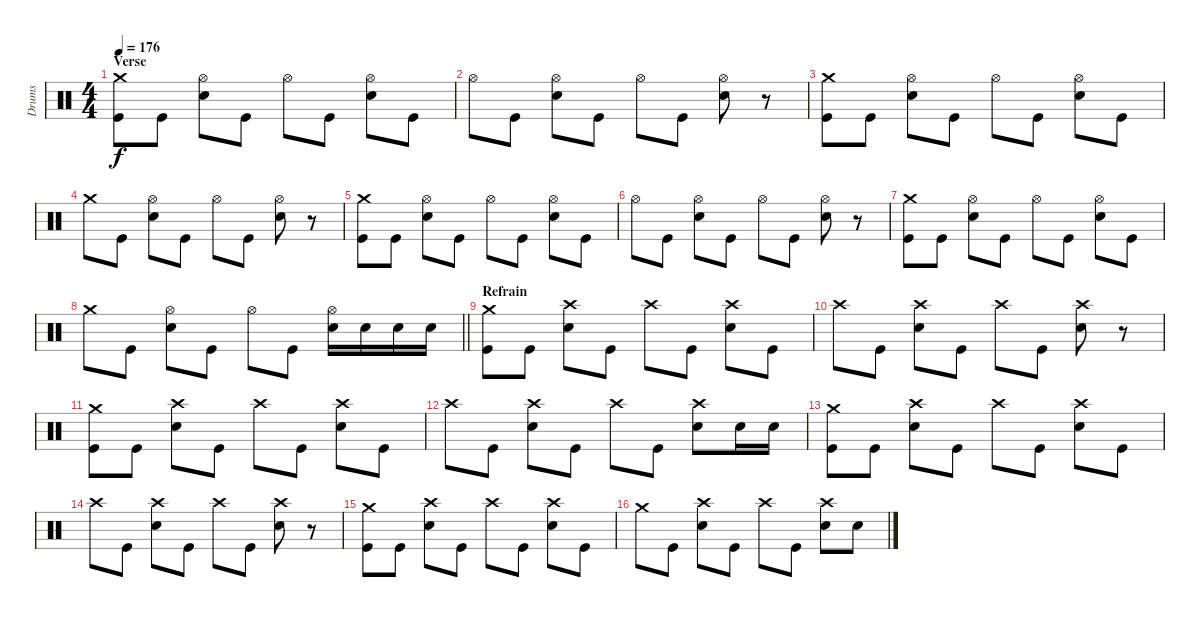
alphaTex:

\track ("Drums" "Drums") {instrument percussion}
\staff {score}
\articulation defaults
\ts (4 4)
\section ("" "Verse")
\tempo 176
\clef neutral
\ks c
("Crash medium (hit)" "Kick (hit)").8{dy f} "Kick (hit)".8 ("Hi-Hat (open)" "Electric Snare (hit)").8 "Kick (hit)".8 "Hi-Hat (open)".8 "Kick (hit)".8 ("Hi-Hat (open)" "Electric Snare (hit)").8 "Kick (hit)".8 |
"Hi-Hat (open)".8 "Kick (hit)".8 ("Hi-Hat (open)" "Electric Snare (hit)").8 "Kick (hit)".8 "Hi-Hat (open)".8 "Kick (hit)".8 ("Hi-Hat (open)" "Electric Snare (hit)").8 r.8 |
("Crash medium (hit)" "Kick (hit)").8 "Kick (hit)".8 ("Hi-Hat (open)" "Electric Snare (hit)").8 "Kick (hit)".8 "Hi-Hat (open)".8 "Kick (hit)".8 ("Hi-Hat (open)" "Electric Snare (hit)").8 "Kick (hit)".8 |
"Crash medium (hit)".8 "Kick (hit)".8 ("Hi-Hat (open)" "Electric Snare (hit)").8 "Kick (hit)".8 "Hi-Hat (open)".8 "Kick (hit)".8 ("Hi-Hat (open)" "Electric Snare (hit)").8 r.8 |
("Crash medium (hit)" "Kick (hit)").8 "Kick (hit)".8 ("Hi-Hat (open)" "Electric Snare (hit)").8 "Kick (hit)".8 "Hi-Hat (open)".8 "Kick (hit)".8 ("Hi-Hat (open)" "Electric Snare (hit)").8 "Kick (hit)".8 |
"Hi-Hat (open)".8 "Kick (hit)".8 ("Hi-Hat (open)" "Electric Snare (hit)").8 "Kick (hit)".8 "Hi-Hat (open)".8 "Kick (hit)".8 ("Hi-Hat (open)" "Electric Snare (hit)").8 r.8 |
("Crash medium (hit)" "Kick (hit)").8 "Kick (hit)".8 ("Hi-Hat (open)" "Electric Snare (hit)").8 "Kick (hit)".8 "Hi-Hat (open)".8 "Kick (hit)".8 ("Hi-Hat (open)" "Electric Snare (hit)").8 "Kick (hit)".8 |
\barLineRight lightlight "Crash medium (hit)".8 "Kick (hit)".8
("Hi-Hat (open)" "Electric Snare (hit)").8 "Kick (hit)".8 "Hi-Hat (open)".8 "Kick (hit)".8 ("Hi-Hat (open)" "Electric Snare (hit)").16 "Electric Snare (hit)".16 "Electric Snare (hit)".16 "Electric Snare (hit)".16 |
\section ("" "Refrain")
("Crash medium (hit)" "Kick (hit)").8 "Kick (hit)".8 ("Crash high (hit)" "Electric Snare (hit)").8 "Kick (hit)".8 "Crash high (hit)".8 "Kick (hit)".8 ("Crash high (hit)" "Electric Snare (hit)").8 "Kick (hit)".8 |
"Crash high (hit)".8 "Kick (hit)".8 ("Crash high (hit)" "Electric Snare (hit)").8 "Kick (hit)".8 "Crash high (hit)".8 "Kick (hit)".8 ("Crash high (hit)" "Electric Snare (hit)").8 r.8 |
("Crash medium (hit)" "Kick (hit)").8 "Kick (hit)".8 ("Crash high (hit)" "Electric Snare (hit)").8 "Kick (hit)".8 "Crash high (hit)".8 "Kick (hit)".8 ("Crash high (hit)" "Electric Snare (hit)").8 "Kick (hit)".8 |
"Crash high (hit)".8 "Kick (hit)".8 ("Crash high (hit)" "Electric Snare (hit)").8 "Kick (hit)".8 "Crash high (hit)".8 "Kick (hit)".8 ("Crash high (hit)" "Electric Snare (hit)").8 "Electric Snare (hit)".16 "Electric Snare (hit)".16 |
("Crash medium (hit)" "Kick (hit)").8 "Kick (hit)".8 ("Crash high (hit)" "Electric Snare (hit)").8 "Kick (hit)".8 "Crash high (hit)".8 "Kick (hit)".8 ("Crash high (hit)" "Electric Snare (hit)").8 "Kick (hit)".8 |
"Crash high (hit)".8 "Kick (hit)".8 ("Crash high (hit)" "Electric Snare (hit)").8 "Kick (hit)".8 "Crash high (hit)".8 "Kick (hit)".8 ("Crash high (hit)" "Electric Snare (hit)").8 r.8 |
("Crash medium (hit)" "Kick (hit)").8 "Kick (hit)".8 ("Crash high (hit)" "Electric Snare (hit)").8 "Kick (hit)".8 "Crash high (hit)".8 "Kick (hit)".8 ("Crash high (hit)" "Electric Snare (hit)").8 "Kick (hit)".8 |
"Crash medium (hit)".8 "Kick (hit)".8 ("Crash high (hit)" "Electric Snare (hit)").8 "Kick (hit)".8 "Crash high (hit)".8 "Kick (hit)".8 ("Crash high (hit)" "Electric Snare (hit)").8 "Electric Snare (hit)".8
